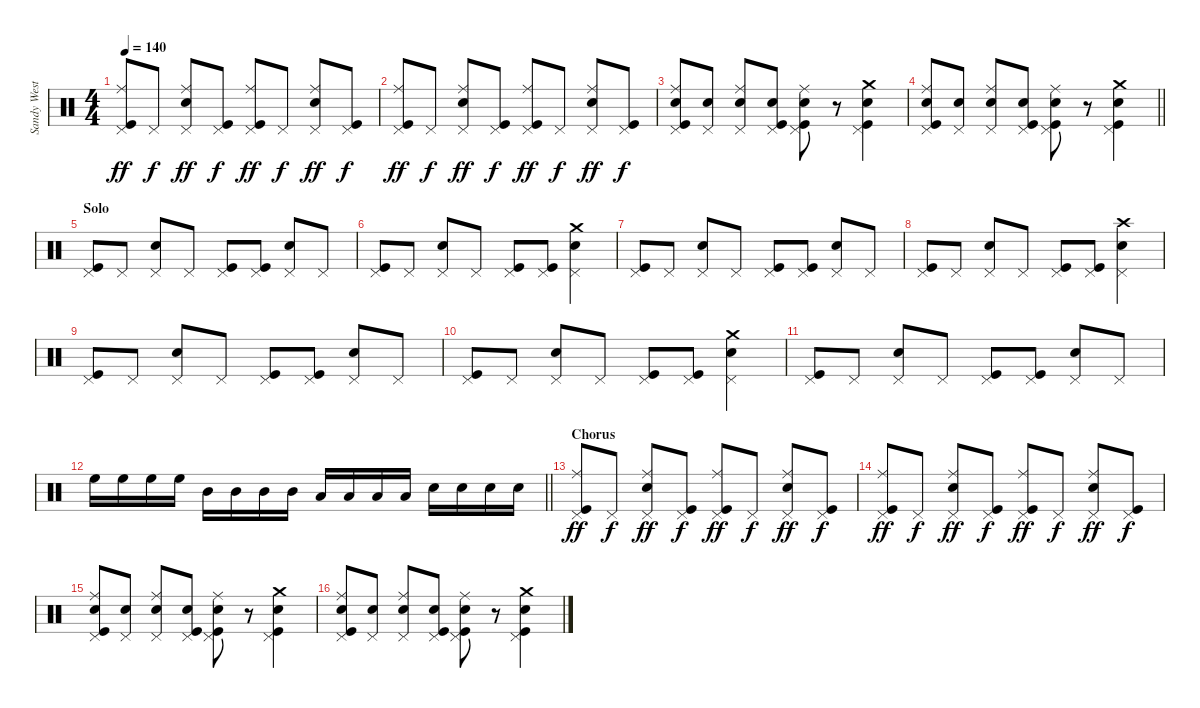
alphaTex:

\track ("Sandy West" "Sandy West") {instrument percussion}
\staff {score}
\articulation defaults
\ts (4 4)
\tempo 140
\clef neutral
\ks c
("Ride (middle)" "Pedal Hi-Hat (hit)" "Kick (hit)").8{dy ff} "Pedal Hi-Hat (hit)".8{dy f} ("Ride (middle)" "Snare (hit) 2" "Pedal Hi-Hat (hit)").8{dy ff} ("Pedal Hi-Hat (hit)" "Kick (hit)").8{dy f} ("Ride (middle)" "Pedal Hi-Hat (hit)" "Kick (hit)").8{dy ff} "Pedal Hi-Hat (hit)".8{dy f} ("Ride (middle)" "Snare (hit) 2" "Pedal Hi-Hat (hit)").8{dy ff} ("Pedal Hi-Hat (hit)" "Kick (hit)").8{dy f} |
("Ride (middle)" "Pedal Hi-Hat (hit)" "Kick (hit)").8{dy ff} "Pedal Hi-Hat (hit)".8{dy f} ("Ride (middle)" "Snare (hit) 2" "Pedal Hi-Hat (hit)").8{dy ff} ("Pedal Hi-Hat (hit)" "Kick (hit)").8{dy f} ("Ride (middle)" "Pedal Hi-Hat (hit)" "Kick (hit)").8{dy ff} "Pedal Hi-Hat (hit)".8{dy f} ("Ride (middle)" "Snare (hit) 2" "Pedal Hi-Hat (hit)").8{dy ff} ("Pedal Hi-Hat (hit)" "Kick (hit)").8{dy f} |
("Ride (middle)" "Pedal Hi-Hat (hit)" "Snare (hit) 2" "Kick (hit)").8 ("Pedal Hi-Hat (hit)" "Snare (hit) 2").8 ("Ride (middle)" "Pedal Hi-Hat (hit)" "Snare (hit) 2").8 ("Pedal Hi-Hat (hit)" "Snare (hit) 2" "Kick (hit)").8 ("Ride (middle)" "Pedal Hi-Hat (hit)" "Snare (hit) 2" "Kick (hit)").8 r.8 ("Crash medium (hit)" "Pedal Hi-Hat (hit)" "Snare (hit) 2" "Kick (hit)").4 |
\barLineRight lightlight
("Ride (middle)" "Pedal Hi-Hat (hit)" "Snare (hit) 2" "Kick (hit)").8 ("Pedal Hi-Hat (hit)" "Snare (hit) 2").8 ("Ride (middle)" "Pedal Hi-Hat (hit)" "Snare (hit) 2").8 ("Pedal Hi-Hat (hit)" "Snare (hit) 2" "Kick (hit)").8 ("Ride (middle)" "Pedal Hi-Hat (hit)" "Snare (hit) 2" "Kick (hit)").8 r.8 ("Crash medium (hit)" "Pedal Hi-Hat (hit)" "Snare (hit) 2" "Kick (hit)").4 |
\section ("" "Solo")
("Pedal Hi-Hat (hit)" "Kick (hit)").8 "Pedal Hi-Hat (hit)".8 ("Snare (hit) 2" "Pedal Hi-Hat (hit)").8 "Pedal Hi-Hat (hit)".8 ("Pedal Hi-Hat (hit)" "Kick (hit)").8 ("Pedal Hi-Hat (hit)" "Kick (hit)").8 ("Snare (hit) 2" "Pedal Hi-Hat (hit)").8 "Pedal Hi-Hat (hit)".8 |
("Pedal Hi-Hat (hit)" "Kick (hit)").8 "Pedal Hi-Hat (hit)".8 ("Snare (hit) 2" "Pedal Hi-Hat (hit)").8 "Pedal Hi-Hat (hit)".8 ("Pedal Hi-Hat (hit)" "Kick (hit)").8 ("Pedal Hi-Hat (hit)" "Kick (hit)").8 ("Crash medium (hit)" "Snare (hit) 2" "Pedal Hi-Hat (hit)").4 |
("Pedal Hi-Hat (hit)" "Kick (hit)").8 "Pedal Hi-Hat (hit)".8 ("Snare (hit) 2" "Pedal Hi-Hat (hit)").8 "Pedal Hi-Hat (hit)".8 ("Pedal Hi-Hat (hit)" "Kick (hit)").8 ("Pedal Hi-Hat (hit)" "Kick (hit)").8 ("Snare (hit) 2" "Pedal Hi-Hat (hit)").8 "Pedal Hi-Hat (hit)".8 |
("Pedal Hi-Hat (hit)" "Kick (hit)").8 "Pedal Hi-Hat (hit)".8 ("Snare (hit) 2" "Pedal Hi-Hat (hit)").8 "Pedal Hi-Hat (hit)".8 ("Pedal Hi-Hat (hit)" "Kick (hit)").8 ("Pedal Hi-Hat (hit)" "Kick (hit)").8 ("Crash high (hit)" "Snare (hit) 2" "Pedal Hi-Hat (hit)").4 |
("Pedal Hi-Hat (hit)" "Kick (hit)").8 "Pedal Hi-Hat (hit)".8 ("Snare (hit) 2" "Pedal Hi-Hat (hit)").8 "Pedal Hi-Hat (hit)".8 ("Pedal Hi-Hat (hit)" "Kick (hit)").8 ("Pedal Hi-Hat (hit)" "Kick (hit)").8 ("Snare (hit) 2" "Pedal Hi-Hat (hit)").8 "Pedal Hi-Hat (hit)".8 |
("Pedal Hi-Hat (hit)" "Kick (hit)").8 "Pedal Hi-Hat (hit)".8 ("Snare (hit) 2" "Pedal Hi-Hat (hit)").8 "Pedal Hi-Hat (hit)".8 ("Pedal Hi-Hat (hit)" "Kick (hit)").8 ("Pedal Hi-Hat (hit)" "Kick (hit)").8 ("Crash medium (hit)" "Snare (hit) 2" "Pedal Hi-Hat (hit)").4 |
("Pedal Hi-Hat (hit)" "Kick (hit)").8 "Pedal Hi-Hat (hit)".8 ("Snare (hit) 2" "Pedal Hi-Hat (hit)").8 "Pedal Hi-Hat (hit)".8 ("Pedal Hi-Hat (hit)" "Kick (hit)").8 ("Pedal Hi-Hat (hit)" "Kick (hit)").8 ("Snare (hit) 2" "Pedal Hi-Hat (hit)").8 "Pedal Hi-Hat (hit)".8 |
\barLineRight lightlight "High Floor Tom (hit)".16 "High Floor Tom (hit)".16 "High Floor Tom (hit)".16 "High Floor Tom (hit)".16 "Mid Tom (hit)".16 "Mid Tom (hit)".16 "Mid Tom (hit)".16 "Mid Tom (hit)".16 "Low Tom (hit)".16 "Low Tom (hit)".16 "Low Tom (hit)".16 "Low Tom (hit)".16 "Snare (hit) 2".16 "Snare (hit) 2".16 "Snare (hit) 2".16 "Snare (hit) 2".16
|
\section ("" "Chorus")
("Ride (middle)" "Pedal Hi-Hat (hit)" "Kick (hit)").8{dy ff} "Pedal Hi-Hat (hit)".8{dy f} ("Ride (middle)" "Snare (hit) 2" "Pedal Hi-Hat (hit)").8{dy ff} ("Pedal Hi-Hat (hit)" "Kick (hit)").8{dy f} ("Ride (middle)" "Pedal Hi-Hat (hit)" "Kick (hit)").8{dy ff} "Pedal Hi-Hat (hit)".8{dy f} ("Ride (middle)" "Snare (hit) 2" "Pedal Hi-Hat (hit)").8{dy ff} ("Pedal Hi-Hat (hit)" "Kick (hit)").8{dy f} |
("Ride (middle)" "Pedal Hi-Hat (hit)" "Kick (hit)").8{dy ff} "Pedal Hi-Hat (hit)".8{dy f} ("Ride (middle)" "Snare (hit) 2" "Pedal Hi-Hat (hit)").8{dy ff} ("Pedal Hi-Hat (hit)" "Kick (hit)").8{dy f} ("Ride (middle)" "Pedal Hi-Hat (hit)" "Kick (hit)").8{dy ff} "Pedal Hi-Hat (hit)".8{dy f} ("Ride (middle)" "Snare (hit) 2" "Pedal Hi-Hat (hit)").8{dy ff} ("Pedal Hi-Hat (hit)" "Kick (hit)").8{dy f} |
("Ride (middle)" "Pedal Hi-Hat (hit)" "Snare (hit) 2" "Kick (hit)").8 ("Pedal Hi-Hat (hit)" "Snare (hit) 2").8 ("Ride (middle)" "Pedal Hi-Hat (hit)" "Snare (hit) 2").8 ("Pedal Hi-Hat (hit)" "Snare (hit) 2" "Kick (hit)").8 ("Ride (middle)" "Pedal Hi-Hat (hit)" "Snare (hit) 2" "Kick (hit)").8 r.8 ("Crash medium (hit)" "Pedal Hi-Hat (hit)" "Snare (hit) 2" "Kick (hit)").4 |
("Ride (middle)" "Pedal Hi-Hat (hit)" "Snare (hit) 2" "Kick (hit)").8 ("Pedal Hi-Hat (hit)" "Snare (hit) 2").8 ("Ride (middle)" "Pedal Hi-Hat (hit)" "Snare (hit) 2").8 ("Pedal Hi-Hat (hit)" "Snare (hit) 2" "Kick (hit)").8 ("Ride (middle)" "Pedal Hi-Hat (hit)" "Snare (hit) 2" "Kick (hit)").8 r.8 ("Crash medium (hit)" "Pedal Hi-Hat (hit)" "Snare (hit) 2" "Kick (hit)").4
